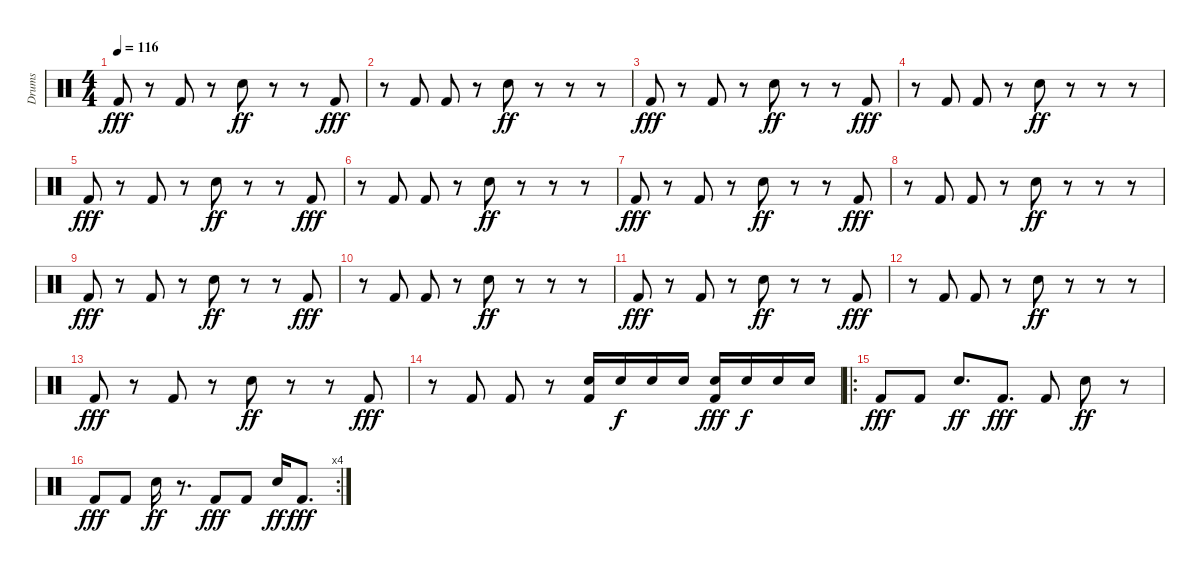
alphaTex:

\track ("Drums" "Drums") {instrument percussion}
\staff {score}
\articulation defaults
\ts (4 4)
\tempo 116
\clef neutral
\ks c "Kick (hit) 2".8{dy fff}
r.8 "Kick (hit) 2".8 r.8 "Snare (hit) 2".8{dy ff} r.8 r.8 "Kick (hit) 2".8{dy fff} |
r.8 "Kick (hit) 2".8 "Kick (hit) 2".8 r.8 "Snare (hit) 2".8{dy ff} r.8 r.8 r.8 |
"Kick (hit) 2".8{dy fff} r.8 "Kick (hit) 2".8 r.8 "Snare (hit) 2".8{dy ff} r.8 r.8 "Kick (hit) 2".8{dy fff} |
r.8 "Kick (hit) 2".8 "Kick (hit) 2".8 r.8 "Snare (hit) 2".8{dy ff} r.8 r.8 r.8 |
"Kick (hit) 2".8{dy fff} r.8 "Kick (hit) 2".8 r.8 "Snare (hit) 2".8{dy ff} r.8 r.8 "Kick (hit) 2".8{dy fff} |
r.8 "Kick (hit) 2".8 "Kick (hit) 2".8 r.8 "Snare (hit) 2".8{dy ff} r.8 r.8 r.8 |
"Kick (hit) 2".8{dy fff} r.8 "Kick (hit) 2".8 r.8 "Snare (hit) 2".8{dy ff} r.8 r.8 "Kick (hit) 2".8{dy fff} |
r.8 "Kick (hit) 2".8 "Kick (hit) 2".8 r.8 "Snare (hit) 2".8{dy ff} r.8 r.8 r.8 |
"Kick (hit) 2".8{dy fff} r.8 "Kick (hit) 2".8 r.8 "Snare (hit) 2".8{dy ff} r.8 r.8 "Kick (hit) 2".8{dy fff} |
r.8 "Kick (hit) 2".8 "Kick (hit) 2".8 r.8 "Snare (hit) 2".8{dy ff} r.8 r.8 r.8 |
"Kick (hit) 2".8{dy fff} r.8 "Kick (hit) 2".8 r.8 "Snare (hit) 2".8{dy ff} r.8 r.8 "Kick (hit) 2".8{dy fff} |
r.8 "Kick (hit) 2".8 "Kick (hit) 2".8 r.8 "Snare (hit) 2".8{dy ff} r.8 r.8 r.8 |
"Kick (hit) 2".8{dy fff} r.8 "Kick (hit) 2".8 r.8 "Snare (hit) 2".8{dy ff} r.8 r.8 "Kick (hit) 2".8{dy fff} |
r.8 "Kick (hit) 2".8 "Kick (hit) 2".8 r.8 ("Snare (hit) 2" "Kick (hit) 2").16 "Snare (hit) 2".16{dy f} "Snare (hit) 2".16 "Snare (hit) 2".16 ("Snare (hit) 2" "Kick (hit) 2").16{dy fff} "Snare (hit) 2".16{dy f} "Snare (hit) 2".16 "Snare (hit) 2".16 |
\ro "Kick (hit) 2".8{dy fff} "Kick (hit) 2".8 "Snare (hit) 2".8{d dy ff} "Kick (hit) 2".8{d dy fff} "Kick (hit) 2".8 "Snare (hit) 2".8{dy ff}
r.8 |
\rc 4 "Kick (hit) 2".8{dy fff} "Kick (hit) 2".8 "Snare (hit) 2".16{dy ff}
r.8{d} "Kick (hit) 2".8{dy fff} "Kick (hit) 2".8 "Snare (hit) 2".16{dy ff} "Kick (hit) 2".8{d dy fff}
